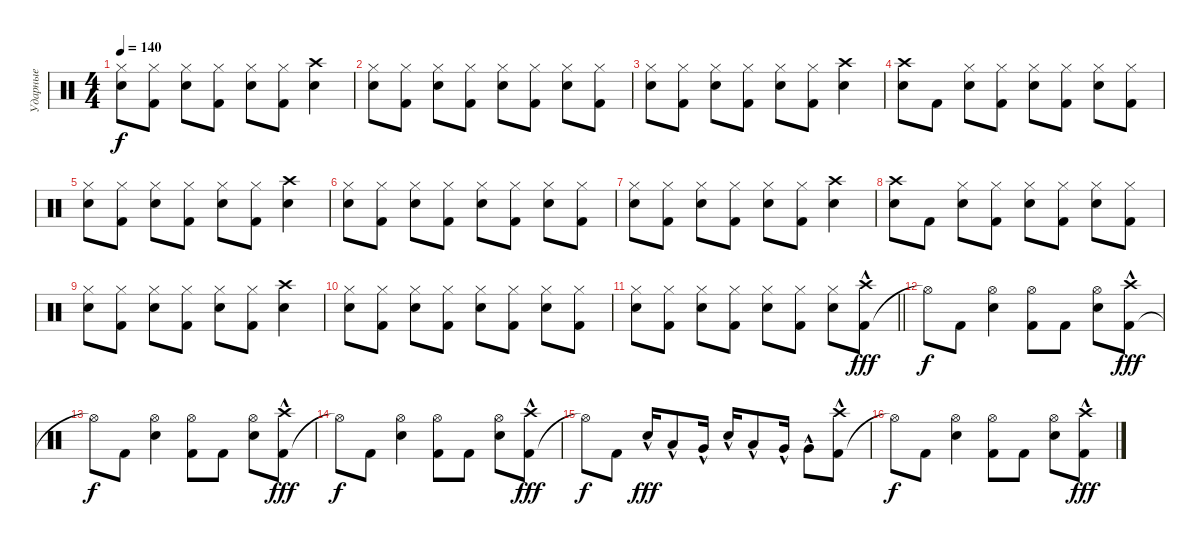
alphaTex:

\track ("Ударные" "Ударные") {instrument percussion}
\staff {score}
\articulation defaults
\ts (4 4)
\tempo 140
\clef neutral
\ks c
("Snare (hit) 2" "Hi-Hat (closed)").8{dy f} ("Kick (hit) 2" "Hi-Hat (closed)").8 ("Snare (hit) 2" "Hi-Hat (closed)").8 ("Kick (hit) 2" "Hi-Hat (closed)").8 ("Snare (hit) 2" "Hi-Hat (closed)").8 ("Kick (hit) 2" "Hi-Hat (closed)").8 ("Snare (hit) 2" "Crash high (hit)").4 |
("Snare (hit) 2" "Hi-Hat (closed)").8 ("Kick (hit) 2" "Hi-Hat (closed)").8 ("Snare (hit) 2" "Hi-Hat (closed)").8 ("Kick (hit) 2" "Hi-Hat (closed)").8 ("Snare (hit) 2" "Hi-Hat (closed)").8 ("Kick (hit) 2" "Hi-Hat (closed)").8 ("Snare (hit) 2" "Hi-Hat (closed)").8 ("Kick (hit) 2" "Hi-Hat (closed)").8 |
("Snare (hit) 2" "Hi-Hat (closed)").8 ("Kick (hit) 2" "Hi-Hat (closed)").8 ("Snare (hit) 2" "Hi-Hat (closed)").8 ("Kick (hit) 2" "Hi-Hat (closed)").8 ("Snare (hit) 2" "Hi-Hat (closed)").8 ("Kick (hit) 2" "Hi-Hat (closed)").8 ("Snare (hit) 2" "Crash high (hit)").4 |
("Snare (hit) 2" "Crash high (hit)").8 "Kick (hit) 2".8 ("Snare (hit) 2" "Hi-Hat (closed)").8 ("Kick (hit) 2" "Hi-Hat (closed)").8 ("Snare (hit) 2" "Hi-Hat (closed)").8 ("Kick (hit) 2" "Hi-Hat (closed)").8 ("Snare (hit) 2" "Hi-Hat (closed)").8 ("Kick (hit) 2" "Hi-Hat (closed)").8 |
("Snare (hit) 2" "Hi-Hat (closed)").8 ("Kick (hit) 2" "Hi-Hat (closed)").8 ("Snare (hit) 2" "Hi-Hat (closed)").8 ("Kick (hit) 2" "Hi-Hat (closed)").8 ("Snare (hit) 2" "Hi-Hat (closed)").8 ("Kick (hit) 2" "Hi-Hat (closed)").8 ("Snare (hit) 2" "Crash high (hit)").4 |
("Snare (hit) 2" "Hi-Hat (closed)").8 ("Kick (hit) 2" "Hi-Hat (closed)").8 ("Snare (hit) 2" "Hi-Hat (closed)").8 ("Kick (hit) 2" "Hi-Hat (closed)").8 ("Snare (hit) 2" "Hi-Hat (closed)").8 ("Kick (hit) 2" "Hi-Hat (closed)").8 ("Snare (hit) 2" "Hi-Hat (closed)").8 ("Kick (hit) 2" "Hi-Hat (closed)").8 |
("Snare (hit) 2" "Hi-Hat (closed)").8 ("Kick (hit) 2" "Hi-Hat (closed)").8 ("Snare (hit) 2" "Hi-Hat (closed)").8 ("Kick (hit) 2" "Hi-Hat (closed)").8 ("Snare (hit) 2" "Hi-Hat (closed)").8 ("Kick (hit) 2" "Hi-Hat (closed)").8 ("Snare (hit) 2" "Crash high (hit)").4 |
("Snare (hit) 2" "Crash high (hit)").8 "Kick (hit) 2".8 ("Snare (hit) 2" "Hi-Hat (closed)").8 ("Kick (hit) 2" "Hi-Hat (closed)").8 ("Snare (hit) 2" "Hi-Hat (closed)").8 ("Kick (hit) 2" "Hi-Hat (closed)").8 ("Snare (hit) 2" "Hi-Hat (closed)").8 ("Kick (hit) 2" "Hi-Hat (closed)").8 |
("Snare (hit) 2" "Hi-Hat (closed)").8 ("Kick (hit) 2" "Hi-Hat (closed)").8 ("Snare (hit) 2" "Hi-Hat (closed)").8 ("Kick (hit) 2" "Hi-Hat (closed)").8 ("Snare (hit) 2" "Hi-Hat (closed)").8 ("Kick (hit) 2" "Hi-Hat (closed)").8 ("Snare (hit) 2" "Crash high (hit)").4 |
("Snare (hit) 2" "Hi-Hat (closed)").8 ("Kick (hit) 2" "Hi-Hat (closed)").8 ("Snare (hit) 2" "Hi-Hat (closed)").8 ("Kick (hit) 2" "Hi-Hat (closed)").8 ("Snare (hit) 2" "Hi-Hat (closed)").8 ("Kick (hit) 2" "Hi-Hat (closed)").8 ("Snare (hit) 2" "Hi-Hat (closed)").8 ("Kick (hit) 2" "Hi-Hat (closed)").8 |
\barLineRight lightlight
("Snare (hit) 2" "Hi-Hat (closed)").8 ("Kick (hit) 2" "Hi-Hat (closed)").8 ("Snare (hit) 2" "Hi-Hat (closed)").8 ("Kick (hit) 2" "Hi-Hat (closed)").8 ("Snare (hit) 2" "Hi-Hat (closed)").8 ("Kick (hit) 2" "Hi-Hat (closed)").8 ("Snare (hit) 2" "Hi-Hat (closed)").8 ("Kick (hit) 2" "Crash high (hit)"{hac}).8{dy fff} |
"Hi-Hat (open)"{t}.8{dy f} "Kick (hit) 2".8 ("Snare (hit) 2" "Hi-Hat (open)").4 ("Kick (hit) 2" "Hi-Hat (open)").8 "Kick (hit) 2".8 ("Snare (hit) 2" "Hi-Hat (open)").8 ("Kick (hit) 2" "Crash high (hit)"{hac}).8{dy fff} |
"Hi-Hat (open)"{t}.8{dy f} "Kick (hit) 2".8 ("Snare (hit) 2" "Hi-Hat (open)").4 ("Kick (hit) 2" "Hi-Hat (open)").8 "Kick (hit) 2".8 ("Snare (hit) 2" "Hi-Hat (open)").8 ("Kick (hit) 2" "Crash high (hit)"{hac}).8{dy fff} |
"Hi-Hat (open)"{t}.8{dy f} "Kick (hit) 2".8 ("Snare (hit) 2" "Hi-Hat (open)").4 ("Kick (hit) 2" "Hi-Hat (open)").8 "Kick (hit) 2".8 ("Snare (hit) 2" "Hi-Hat (open)").8 ("Kick (hit) 2" "Crash high (hit)"{hac}).8{dy fff} |
"Hi-Hat (open)"{t}.8{dy f} "Kick (hit) 2".8 "Snare (hit) 2"{hac}.16{dy fff} "Low Tom (hit)"{hac}.8 "Very Low Tom (hit)"{hac}.16 "Snare (hit) 2"{hac}.16 "Low Tom (hit)"{hac}.8 "Very Low Tom (hit)"{hac}.16 "Very Low Tom (hit)"{hac}.8 ("Kick (hit) 2" "Crash high (hit)"{hac}).8 |
"Hi-Hat (open)"{t}.8{dy f} "Kick (hit) 2".8 ("Snare (hit) 2" "Hi-Hat (open)").4 ("Kick (hit) 2" "Hi-Hat (open)").8 "Kick (hit) 2".8 ("Snare (hit) 2" "Hi-Hat (open)").8 ("Kick (hit) 2" "Crash high (hit)"{hac}).8{dy fff}
